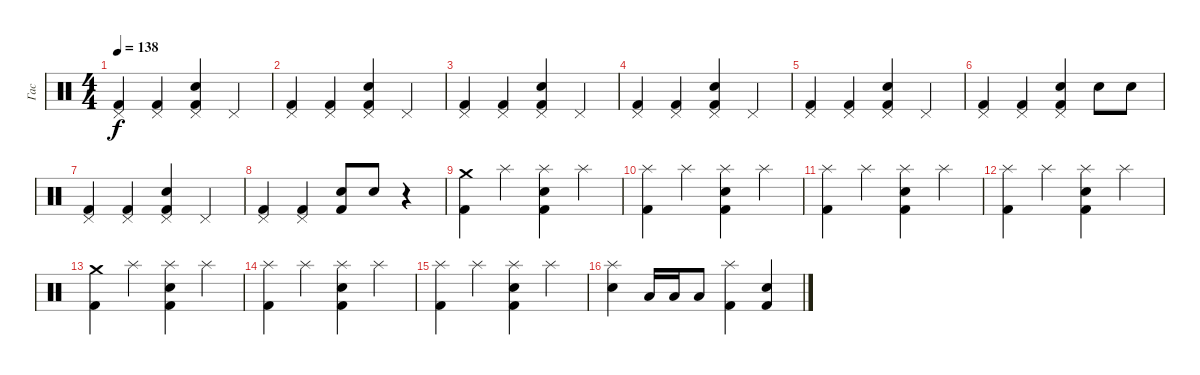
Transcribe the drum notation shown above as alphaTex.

\track ("Гас" "Гас") {instrument percussion}
\staff {score}
\articulation defaults
\ts (4 4)
\tempo 138
\clef neutral
\ks c
("Pedal Hi-Hat (hit)" "Kick (hit) 2").4{dy f} ("Pedal Hi-Hat (hit)" "Kick (hit) 2").4 ("Pedal Hi-Hat (hit)" "Electric Snare (hit)" "Kick (hit) 2").4 "Pedal Hi-Hat (hit)".4 |
("Pedal Hi-Hat (hit)" "Kick (hit) 2").4 ("Pedal Hi-Hat (hit)" "Kick (hit) 2").4 ("Pedal Hi-Hat (hit)" "Electric Snare (hit)" "Kick (hit) 2").4 "Pedal Hi-Hat (hit)".4 |
("Pedal Hi-Hat (hit)" "Kick (hit) 2").4 ("Pedal Hi-Hat (hit)" "Kick (hit) 2").4 ("Pedal Hi-Hat (hit)" "Electric Snare (hit)" "Kick (hit) 2").4 "Pedal Hi-Hat (hit)".4 |
("Pedal Hi-Hat (hit)" "Kick (hit) 2").4 ("Pedal Hi-Hat (hit)" "Kick (hit) 2").4 ("Pedal Hi-Hat (hit)" "Electric Snare (hit)" "Kick (hit) 2").4 "Pedal Hi-Hat (hit)".4 |
("Pedal Hi-Hat (hit)" "Kick (hit) 2").4 ("Pedal Hi-Hat (hit)" "Kick (hit) 2").4 ("Pedal Hi-Hat (hit)" "Electric Snare (hit)" "Kick (hit) 2").4 "Pedal Hi-Hat (hit)".4 |
("Pedal Hi-Hat (hit)" "Kick (hit) 2").4 ("Pedal Hi-Hat (hit)" "Kick (hit) 2").4 ("Pedal Hi-Hat (hit)" "Electric Snare (hit)" "Kick (hit) 2").4 "Electric Snare (hit)".8 "Electric Snare (hit)".8 |
("Pedal Hi-Hat (hit)" "Kick (hit) 2").4 ("Pedal Hi-Hat (hit)" "Kick (hit) 2").4 ("Pedal Hi-Hat (hit)" "Electric Snare (hit)" "Kick (hit) 2").4 "Pedal Hi-Hat (hit)".4 |
("Pedal Hi-Hat (hit)" "Kick (hit) 2").4 ("Pedal Hi-Hat (hit)" "Kick (hit) 2").4 ("Electric Snare (hit)" "Kick (hit) 2").8 "Electric Snare (hit)".8 r.4 |
("Crash medium (hit)" "Kick (hit) 2").4 "Splash (hit)".4 ("Splash (hit)" "Electric Snare (hit)" "Kick (hit) 2").4 "Splash (hit)".4 |
("Splash (hit)" "Kick (hit) 2").4 "Splash (hit)".4 ("Splash (hit)" "Electric Snare (hit)" "Kick (hit) 2").4 "Splash (hit)".4 |
("Splash (hit)" "Kick (hit) 2").4 "Splash (hit)".4 ("Splash (hit)" "Electric Snare (hit)" "Kick (hit) 2").4 "Splash (hit)".4 |
("Splash (hit)" "Kick (hit) 2").4 "Splash (hit)".4 ("Splash (hit)" "Electric Snare (hit)" "Kick (hit) 2").4 "Splash (hit)".4 |
("Crash medium (hit)" "Kick (hit) 2").4 "Splash (hit)".4 ("Splash (hit)" "Electric Snare (hit)" "Kick (hit) 2").4 "Splash (hit)".4 |
("Splash (hit)" "Kick (hit) 2").4 "Splash (hit)".4 ("Splash (hit)" "Electric Snare (hit)" "Kick (hit) 2").4 "Splash (hit)".4 |
("Splash (hit)" "Kick (hit) 2").4 "Splash (hit)".4 ("Splash (hit)" "Electric Snare (hit)" "Kick (hit) 2").4 "Splash (hit)".4 |
("Splash (hit)" "Electric Snare (hit)").4 "Low Floor Tom (hit)".16 "Low Floor Tom (hit)".16 "Low Floor Tom (hit)".8 ("Splash (hit)" "Kick (hit) 2").4 ("Electric Snare (hit)" "Kick (hit) 2").4
